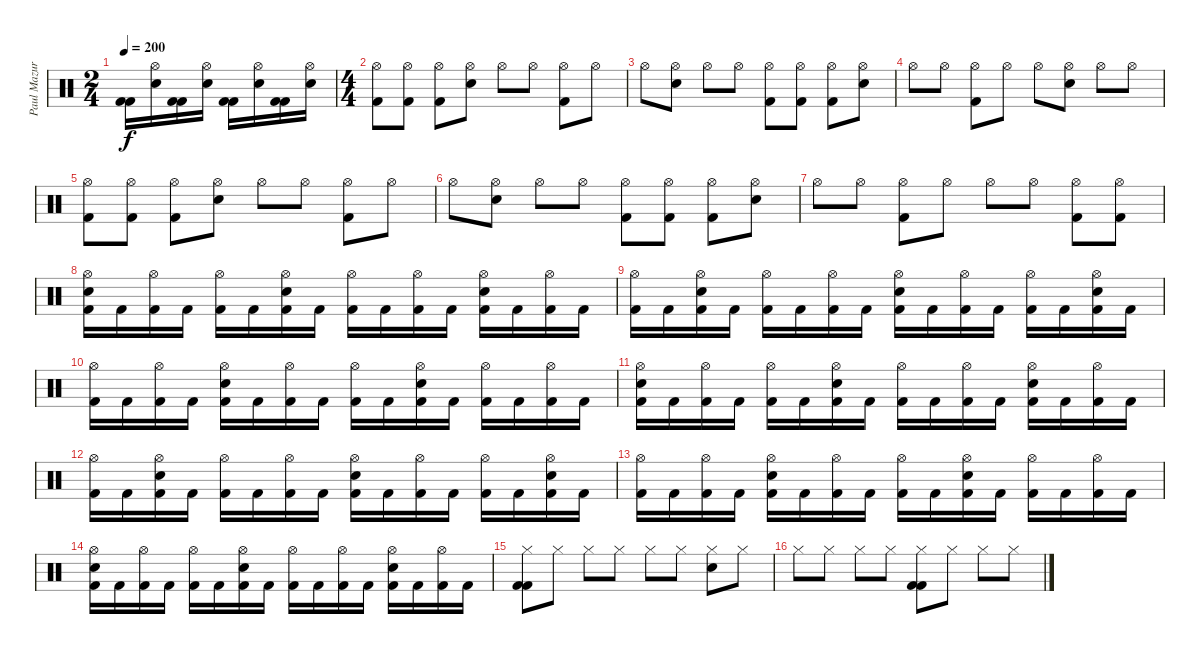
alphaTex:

\track ("Paul Mazurkiewicz" "Paul Mazur") {instrument percussion}
\staff {score}
\articulation defaults
\ts (2 4)
\tempo 200
\clef neutral
\ks c
("Kick (hit) 2" "Kick (hit) 2").16{dy f} ("Hi-Hat (open)" "Electric Snare (hit)").16 ("Kick (hit) 2" "Kick (hit) 2").16 ("Hi-Hat (open)" "Electric Snare (hit)").16 ("Kick (hit) 2" "Kick (hit) 2").16 ("Hi-Hat (open)" "Electric Snare (hit)").16 ("Kick (hit) 2" "Kick (hit) 2").16 ("Hi-Hat (open)" "Electric Snare (hit)").16 |
\ts (4 4)
("Hi-Hat (open)" "Kick (hit) 2").8 ("Hi-Hat (open)" "Kick (hit) 2").8 ("Hi-Hat (open)" "Kick (hit) 2").8 ("Hi-Hat (open)" "Electric Snare (hit)").8 "Hi-Hat (open)".8 "Hi-Hat (open)".8 ("Hi-Hat (open)" "Kick (hit) 2").8 "Hi-Hat (open)".8 |
"Hi-Hat (open)".8 ("Hi-Hat (open)" "Electric Snare (hit)").8 "Hi-Hat (open)".8 "Hi-Hat (open)".8 ("Hi-Hat (open)" "Kick (hit) 2").8 ("Hi-Hat (open)" "Kick (hit) 2").8 ("Hi-Hat (open)" "Kick (hit) 2").8 ("Hi-Hat (open)" "Electric Snare (hit)").8 |
"Hi-Hat (open)".8 "Hi-Hat (open)".8 ("Hi-Hat (open)" "Kick (hit) 2").8 "Hi-Hat (open)".8 "Hi-Hat (open)".8 ("Hi-Hat (open)" "Electric Snare (hit)").8 "Hi-Hat (open)".8 "Hi-Hat (open)".8 |
("Hi-Hat (open)" "Kick (hit) 2").8 ("Hi-Hat (open)" "Kick (hit) 2").8 ("Hi-Hat (open)" "Kick (hit) 2").8 ("Hi-Hat (open)" "Electric Snare (hit)").8 "Hi-Hat (open)".8 "Hi-Hat (open)".8 ("Hi-Hat (open)" "Kick (hit) 2").8 "Hi-Hat (open)".8 |
"Hi-Hat (open)".8 ("Hi-Hat (open)" "Electric Snare (hit)").8 "Hi-Hat (open)".8 "Hi-Hat (open)".8 ("Hi-Hat (open)" "Kick (hit) 2").8 ("Hi-Hat (open)" "Kick (hit) 2").8 ("Hi-Hat (open)" "Kick (hit) 2").8 ("Hi-Hat (open)" "Electric Snare (hit)").8 |
"Hi-Hat (open)".8 "Hi-Hat (open)".8 ("Hi-Hat (open)" "Kick (hit) 2").8 "Hi-Hat (open)".8 "Hi-Hat (open)".8 "Hi-Hat (open)".8 ("Hi-Hat (open)" "Kick (hit) 2").8 ("Hi-Hat (open)" "Kick (hit) 2").8 |
("Hi-Hat (open)" "Electric Snare (hit)" "Kick (hit) 2").16 "Kick (hit) 2".16 ("Hi-Hat (open)" "Kick (hit) 2").16 "Kick (hit) 2".16 ("Hi-Hat (open)" "Kick (hit) 2").16 "Kick (hit) 2".16 ("Hi-Hat (open)" "Electric Snare (hit)" "Kick (hit) 2").16 "Kick (hit) 2".16 ("Hi-Hat (open)" "Kick (hit) 2").16 "Kick (hit) 2".16 ("Hi-Hat (open)" "Kick (hit) 2").16 "Kick (hit) 2".16 ("Hi-Hat (open)" "Electric Snare (hit)" "Kick (hit) 2").16 "Kick (hit) 2".16 ("Hi-Hat (open)" "Kick (hit) 2").16 "Kick (hit) 2".16 |
("Hi-Hat (open)" "Kick (hit) 2").16 "Kick (hit) 2".16 ("Hi-Hat (open)" "Electric Snare (hit)" "Kick (hit) 2").16 "Kick (hit) 2".16 ("Hi-Hat (open)" "Kick (hit) 2").16 "Kick (hit) 2".16 ("Hi-Hat (open)" "Kick (hit) 2").16 "Kick (hit) 2".16 ("Hi-Hat (open)" "Electric Snare (hit)" "Kick (hit) 2").16 "Kick (hit) 2".16 ("Hi-Hat (open)" "Kick (hit) 2").16 "Kick (hit) 2".16 ("Hi-Hat (open)" "Kick (hit) 2").16 "Kick (hit) 2".16 ("Hi-Hat (open)" "Electric Snare (hit)" "Kick (hit) 2").16 "Kick (hit) 2".16 |
("Hi-Hat (open)" "Kick (hit) 2").16 "Kick (hit) 2".16 ("Hi-Hat (open)" "Kick (hit) 2").16 "Kick (hit) 2".16 ("Hi-Hat (open)" "Electric Snare (hit)" "Kick (hit) 2").16 "Kick (hit) 2".16 ("Hi-Hat (open)" "Kick (hit) 2").16 "Kick (hit) 2".16 ("Hi-Hat (open)" "Kick (hit) 2").16 "Kick (hit) 2".16 ("Hi-Hat (open)" "Electric Snare (hit)" "Kick (hit) 2").16 "Kick (hit) 2".16 ("Hi-Hat (open)" "Kick (hit) 2").16 "Kick (hit) 2".16 ("Hi-Hat (open)" "Kick (hit) 2").16 "Kick (hit) 2".16 |
("Hi-Hat (open)" "Electric Snare (hit)" "Kick (hit) 2").16 "Kick (hit) 2".16 ("Hi-Hat (open)" "Kick (hit) 2").16 "Kick (hit) 2".16 ("Hi-Hat (open)" "Kick (hit) 2").16 "Kick (hit) 2".16 ("Hi-Hat (open)" "Electric Snare (hit)" "Kick (hit) 2").16 "Kick (hit) 2".16 ("Hi-Hat (open)" "Kick (hit) 2").16 "Kick (hit) 2".16 ("Hi-Hat (open)" "Kick (hit) 2").16 "Kick (hit) 2".16 ("Hi-Hat (open)" "Electric Snare (hit)" "Kick (hit) 2").16 "Kick (hit) 2".16 ("Hi-Hat (open)" "Kick (hit) 2").16 "Kick (hit) 2".16 |
("Hi-Hat (open)" "Kick (hit) 2").16 "Kick (hit) 2".16 ("Hi-Hat (open)" "Electric Snare (hit)" "Kick (hit) 2").16 "Kick (hit) 2".16 ("Hi-Hat (open)" "Kick (hit) 2").16 "Kick (hit) 2".16 ("Hi-Hat (open)" "Kick (hit) 2").16 "Kick (hit) 2".16 ("Hi-Hat (open)" "Electric Snare (hit)" "Kick (hit) 2").16 "Kick (hit) 2".16 ("Hi-Hat (open)" "Kick (hit) 2").16 "Kick (hit) 2".16 ("Hi-Hat (open)" "Kick (hit) 2").16 "Kick (hit) 2".16 ("Hi-Hat (open)" "Electric Snare (hit)" "Kick (hit) 2").16 "Kick (hit) 2".16 |
("Hi-Hat (open)" "Kick (hit) 2").16 "Kick (hit) 2".16 ("Hi-Hat (open)" "Kick (hit) 2").16 "Kick (hit) 2".16 ("Hi-Hat (open)" "Electric Snare (hit)" "Kick (hit) 2").16 "Kick (hit) 2".16 ("Hi-Hat (open)" "Kick (hit) 2").16 "Kick (hit) 2".16 ("Hi-Hat (open)" "Kick (hit) 2").16 "Kick (hit) 2".16 ("Hi-Hat (open)" "Electric Snare (hit)" "Kick (hit) 2").16 "Kick (hit) 2".16 ("Hi-Hat (open)" "Kick (hit) 2").16 "Kick (hit) 2".16 ("Hi-Hat (open)" "Kick (hit) 2").16 "Kick (hit) 2".16 |
("Hi-Hat (open)" "Electric Snare (hit)" "Kick (hit) 2").16 "Kick (hit) 2".16 ("Hi-Hat (open)" "Kick (hit) 2").16 "Kick (hit) 2".16 ("Hi-Hat (open)" "Kick (hit) 2").16 "Kick (hit) 2".16 ("Hi-Hat (open)" "Electric Snare (hit)" "Kick (hit) 2").16 "Kick (hit) 2".16 ("Hi-Hat (open)" "Kick (hit) 2").16 "Kick (hit) 2".16 ("Hi-Hat (open)" "Kick (hit) 2").16 "Kick (hit) 2".16 ("Hi-Hat (open)" "Electric Snare (hit)" "Kick (hit) 2").16 "Kick (hit) 2".16 ("Hi-Hat (open)" "Kick (hit) 2").16 "Kick (hit) 2".16 |
("Hi-Hat (closed)" "Kick (hit) 2" "Kick (hit) 2").8 "Hi-Hat (closed)".8 "Hi-Hat (closed)".8 "Hi-Hat (closed)".8 "Hi-Hat (closed)".8 "Hi-Hat (closed)".8 ("Hi-Hat (closed)" "Electric Snare (hit)").8 "Hi-Hat (closed)".8 |
"Hi-Hat (closed)".8 "Hi-Hat (closed)".8 "Hi-Hat (closed)".8 "Hi-Hat (closed)".8 ("Hi-Hat (closed)" "Kick (hit) 2" "Kick (hit) 2").8 "Hi-Hat (closed)".8 "Hi-Hat (closed)".8 "Hi-Hat (closed)".8
